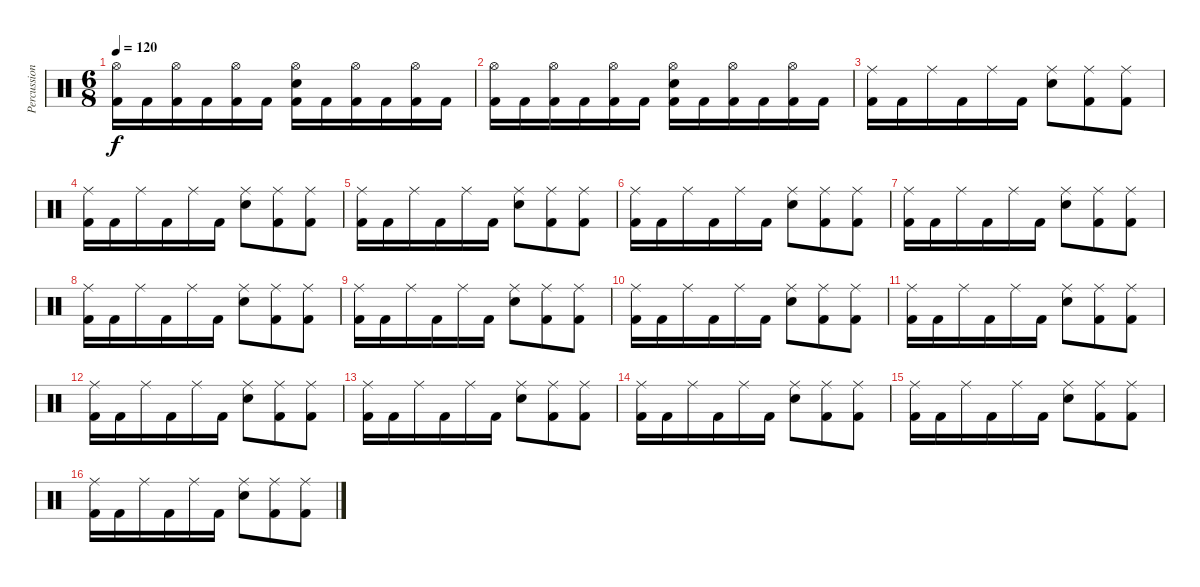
\track ("Percussion" "Percussion") {instrument percussion}
\staff {score}
\articulation defaults
\ts (6 8)
\tempo 120
\clef neutral
\ks c
("Hi-Hat (open)" "Kick (hit) 2").16{dy f} "Kick (hit) 2".16 ("Hi-Hat (open)" "Kick (hit) 2").16 "Kick (hit) 2".16 ("Hi-Hat (open)" "Kick (hit) 2").16 "Kick (hit) 2".16 ("Hi-Hat (open)" "Electric Snare (hit)" "Kick (hit) 2").16 "Kick (hit) 2".16 ("Hi-Hat (open)" "Kick (hit) 2").16 "Kick (hit) 2".16 ("Hi-Hat (open)" "Kick (hit) 2").16 "Kick (hit) 2".16 |
("Hi-Hat (open)" "Kick (hit) 2").16 "Kick (hit) 2".16 ("Hi-Hat (open)" "Kick (hit) 2").16 "Kick (hit) 2".16 ("Hi-Hat (open)" "Kick (hit) 2").16 "Kick (hit) 2".16 ("Hi-Hat (open)" "Electric Snare (hit)" "Kick (hit) 2").16 "Kick (hit) 2".16 ("Hi-Hat (open)" "Kick (hit) 2").16 "Kick (hit) 2".16 ("Hi-Hat (open)" "Kick (hit) 2").16 "Kick (hit) 2".16 |
("Ride (middle)" "Kick (hit) 2").16 "Kick (hit) 2".16 "Ride (middle)".16 "Kick (hit) 2".16 "Ride (middle)".16 "Kick (hit) 2".16 ("Ride (middle)" "Electric Snare (hit)").8 ("Ride (middle)" "Kick (hit) 2").8 ("Ride (middle)" "Kick (hit) 2").8 |
("Ride (middle)" "Kick (hit) 2").16 "Kick (hit) 2".16 "Ride (middle)".16 "Kick (hit) 2".16 "Ride (middle)".16 "Kick (hit) 2".16 ("Ride (middle)" "Electric Snare (hit)").8 ("Ride (middle)" "Kick (hit) 2").8 ("Ride (middle)" "Kick (hit) 2").8 |
("Ride (middle)" "Kick (hit) 2").16 "Kick (hit) 2".16 "Ride (middle)".16 "Kick (hit) 2".16 "Ride (middle)".16 "Kick (hit) 2".16 ("Ride (middle)" "Electric Snare (hit)").8 ("Ride (middle)" "Kick (hit) 2").8 ("Ride (middle)" "Kick (hit) 2").8 |
("Ride (middle)" "Kick (hit) 2").16 "Kick (hit) 2".16 "Ride (middle)".16 "Kick (hit) 2".16 "Ride (middle)".16 "Kick (hit) 2".16 ("Ride (middle)" "Electric Snare (hit)").8 ("Ride (middle)" "Kick (hit) 2").8 ("Ride (middle)" "Kick (hit) 2").8 |
("Ride (middle)" "Kick (hit) 2").16 "Kick (hit) 2".16 "Ride (middle)".16 "Kick (hit) 2".16 "Ride (middle)".16 "Kick (hit) 2".16 ("Ride (middle)" "Electric Snare (hit)").8 ("Ride (middle)" "Kick (hit) 2").8 ("Ride (middle)" "Kick (hit) 2").8 |
("Ride (middle)" "Kick (hit) 2").16 "Kick (hit) 2".16 "Ride (middle)".16 "Kick (hit) 2".16 "Ride (middle)".16 "Kick (hit) 2".16 ("Ride (middle)" "Electric Snare (hit)").8 ("Ride (middle)" "Kick (hit) 2").8 ("Ride (middle)" "Kick (hit) 2").8 |
("Ride (middle)" "Kick (hit) 2").16 "Kick (hit) 2".16 "Ride (middle)".16 "Kick (hit) 2".16 "Ride (middle)".16 "Kick (hit) 2".16 ("Ride (middle)" "Electric Snare (hit)").8 ("Ride (middle)" "Kick (hit) 2").8 ("Ride (middle)" "Kick (hit) 2").8 |
("Ride (middle)" "Kick (hit) 2").16 "Kick (hit) 2".16 "Ride (middle)".16 "Kick (hit) 2".16 "Ride (middle)".16 "Kick (hit) 2".16 ("Ride (middle)" "Electric Snare (hit)").8 ("Ride (middle)" "Kick (hit) 2").8 ("Ride (middle)" "Kick (hit) 2").8 |
("Ride (middle)" "Kick (hit) 2").16 "Kick (hit) 2".16 "Ride (middle)".16 "Kick (hit) 2".16 "Ride (middle)".16 "Kick (hit) 2".16 ("Ride (middle)" "Electric Snare (hit)").8 ("Ride (middle)" "Kick (hit) 2").8 ("Ride (middle)" "Kick (hit) 2").8 |
("Ride (middle)" "Kick (hit) 2").16 "Kick (hit) 2".16 "Ride (middle)".16 "Kick (hit) 2".16 "Ride (middle)".16 "Kick (hit) 2".16 ("Ride (middle)" "Electric Snare (hit)").8 ("Ride (middle)" "Kick (hit) 2").8 ("Ride (middle)" "Kick (hit) 2").8 |
("Ride (middle)" "Kick (hit) 2").16 "Kick (hit) 2".16 "Ride (middle)".16 "Kick (hit) 2".16 "Ride (middle)".16 "Kick (hit) 2".16 ("Ride (middle)" "Electric Snare (hit)").8 ("Ride (middle)" "Kick (hit) 2").8 ("Ride (middle)" "Kick (hit) 2").8 |
("Ride (middle)" "Kick (hit) 2").16 "Kick (hit) 2".16 "Ride (middle)".16 "Kick (hit) 2".16 "Ride (middle)".16 "Kick (hit) 2".16 ("Ride (middle)" "Electric Snare (hit)").8 ("Ride (middle)" "Kick (hit) 2").8 ("Ride (middle)" "Kick (hit) 2").8 |
("Ride (middle)" "Kick (hit) 2").16 "Kick (hit) 2".16 "Ride (middle)".16 "Kick (hit) 2".16 "Ride (middle)".16 "Kick (hit) 2".16 ("Ride (middle)" "Electric Snare (hit)").8 ("Ride (middle)" "Kick (hit) 2").8 ("Ride (middle)" "Kick (hit) 2").8 |
("Ride (middle)" "Kick (hit) 2").16 "Kick (hit) 2".16 "Ride (middle)".16 "Kick (hit) 2".16 "Ride (middle)".16 "Kick (hit) 2".16 ("Ride (middle)" "Electric Snare (hit)").8 ("Ride (middle)" "Kick (hit) 2").8 ("Ride (middle)" "Kick (hit) 2").8
